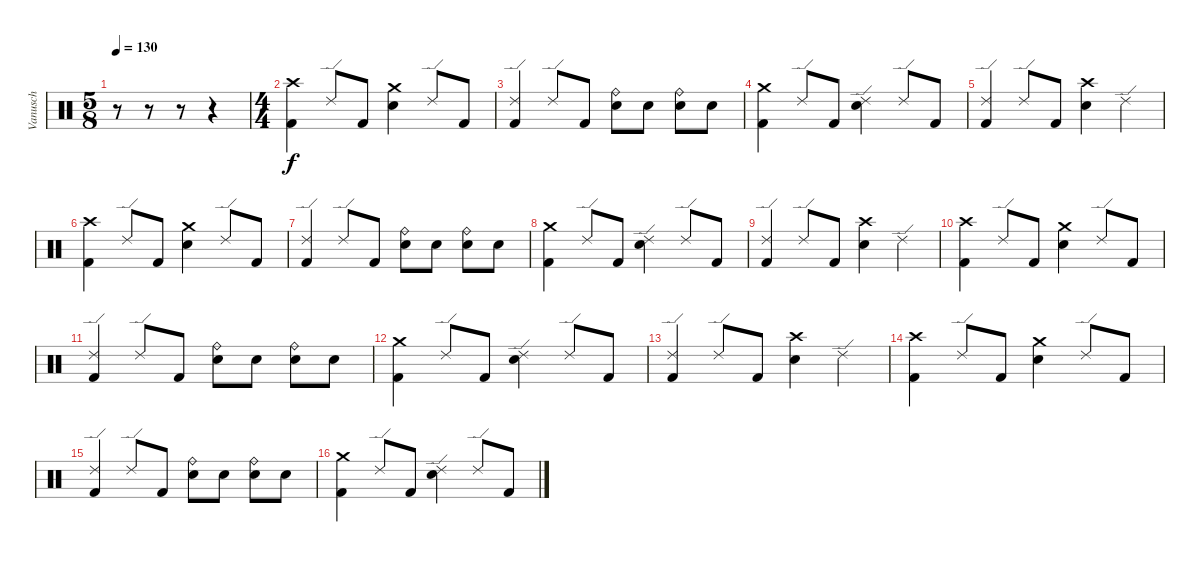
\track ("Vanusch" "Vanusch") {instrument percussion}
\staff {score}
\articulation defaults
\ts (5 8)
\tempo 130
\clef neutral
\ks c
r.8{dy f} r.8 r.8 r.4 |
\ts (4 4)
("Crash high (hit)" "Kick (hit) 2").4 "Ride (edge) 2".8 "Kick (hit) 2".8 ("Crash medium (hit)" "Snare (hit) 2").4 "Ride (edge) 2".8 "Kick (hit) 2".8 |
("Ride (edge) 2" "Kick (hit) 2").4 "Ride (edge) 2".8 "Kick (hit) 2".8 ("Ride (bell)" "Snare (hit) 2").8 "Snare (hit) 2".8 ("Ride (bell)" "Snare (hit) 2").8 "Snare (hit) 2".8 |
("Crash medium (hit)" "Kick (hit) 2").4 "Ride (edge) 2".8 "Kick (hit) 2".8 ("Ride (edge) 2" "Snare (hit) 2").4 "Ride (edge) 2".8 "Kick (hit) 2".8 |
("Ride (edge) 2" "Kick (hit) 2").4 "Ride (edge) 2".8 "Kick (hit) 2".8 ("Crash high (hit)" "Snare (hit) 2").4 "Ride (edge) 2".4 |
("Crash high (hit)" "Kick (hit) 2").4 "Ride (edge) 2".8 "Kick (hit) 2".8 ("Crash medium (hit)" "Snare (hit) 2").4 "Ride (edge) 2".8 "Kick (hit) 2".8 |
("Ride (edge) 2" "Kick (hit) 2").4 "Ride (edge) 2".8 "Kick (hit) 2".8 ("Ride (bell)" "Snare (hit) 2").8 "Snare (hit) 2".8 ("Ride (bell)" "Snare (hit) 2").8 "Snare (hit) 2".8 |
("Crash medium (hit)" "Kick (hit) 2").4 "Ride (edge) 2".8 "Kick (hit) 2".8 ("Ride (edge) 2" "Snare (hit) 2").4 "Ride (edge) 2".8 "Kick (hit) 2".8 |
("Ride (edge) 2" "Kick (hit) 2").4 "Ride (edge) 2".8 "Kick (hit) 2".8 ("Crash high (hit)" "Snare (hit) 2").4 "Ride (edge) 2".4 |
("Crash high (hit)" "Kick (hit) 2").4 "Ride (edge) 2".8 "Kick (hit) 2".8 ("Crash medium (hit)" "Snare (hit) 2").4 "Ride (edge) 2".8 "Kick (hit) 2".8 |
("Ride (edge) 2" "Kick (hit) 2").4 "Ride (edge) 2".8 "Kick (hit) 2".8 ("Ride (bell)" "Snare (hit) 2").8 "Snare (hit) 2".8 ("Ride (bell)" "Snare (hit) 2").8 "Snare (hit) 2".8 |
("Crash medium (hit)" "Kick (hit) 2").4 "Ride (edge) 2".8 "Kick (hit) 2".8 ("Ride (edge) 2" "Snare (hit) 2").4 "Ride (edge) 2".8 "Kick (hit) 2".8 |
("Ride (edge) 2" "Kick (hit) 2").4 "Ride (edge) 2".8 "Kick (hit) 2".8 ("Crash high (hit)" "Snare (hit) 2").4 "Ride (edge) 2".4 |
("Crash high (hit)" "Kick (hit) 2").4 "Ride (edge) 2".8 "Kick (hit) 2".8 ("Crash medium (hit)" "Snare (hit) 2").4 "Ride (edge) 2".8 "Kick (hit) 2".8 |
("Ride (edge) 2" "Kick (hit) 2").4 "Ride (edge) 2".8 "Kick (hit) 2".8 ("Ride (bell)" "Snare (hit) 2").8 "Snare (hit) 2".8 ("Ride (bell)" "Snare (hit) 2").8 "Snare (hit) 2".8 |
("Crash medium (hit)" "Kick (hit) 2").4 "Ride (edge) 2".8 "Kick (hit) 2".8 ("Ride (edge) 2" "Snare (hit) 2").4 "Ride (edge) 2".8 "Kick (hit) 2".8
